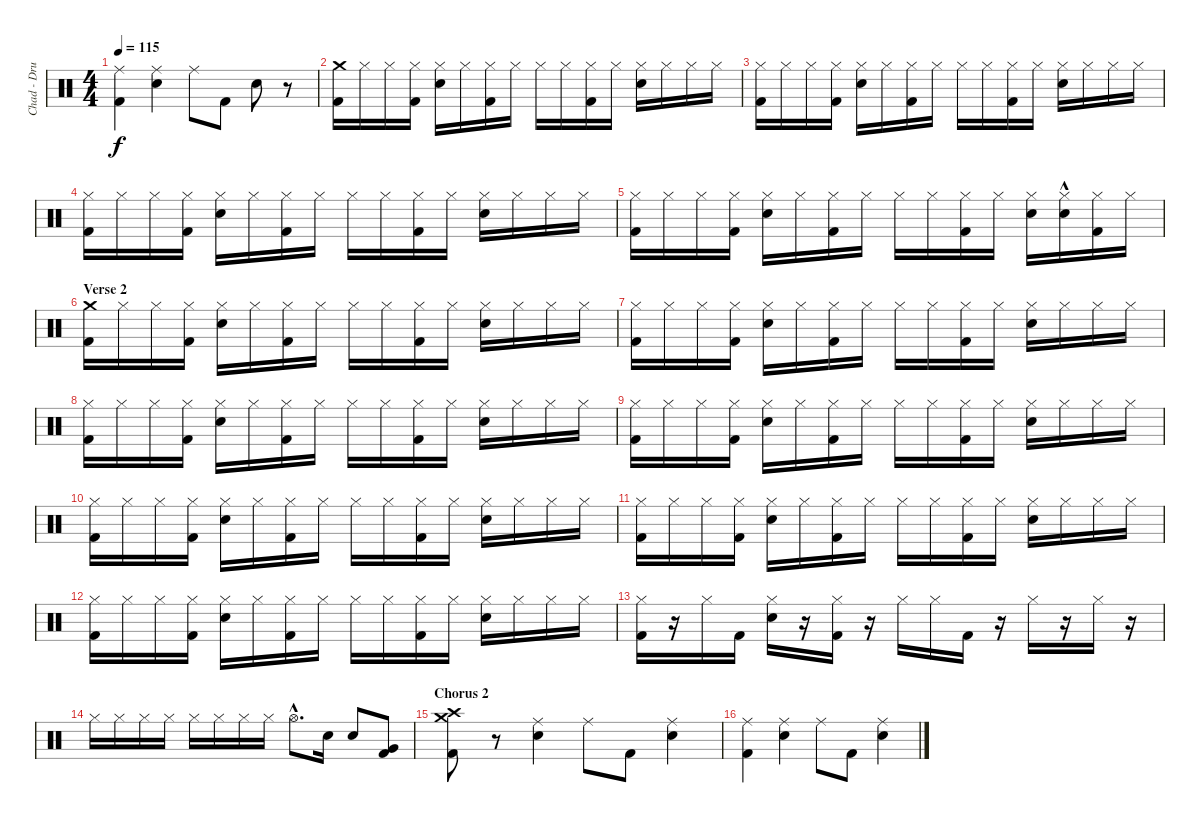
\track ("Chad - Drums" "Chad - Dru") {instrument percussion}
\staff {score}
\articulation defaults
\ts (4 4)
\tempo 115
\clef neutral
\ks c
("Kick (hit) 2" "Ride (middle)").4{dy f} ("Electric Snare (hit)" "Ride (middle)").4 "Ride (middle)".8 "Kick (hit) 2".8 "Electric Snare (hit)".8 r.8 |
("Kick (hit) 2" "Crash medium (hit)").16 "Hi-Hat (closed)".16 "Hi-Hat (closed)".16 ("Kick (hit) 2" "Hi-Hat (closed)").16 ("Hi-Hat (closed)" "Electric Snare (hit)").16 "Hi-Hat (closed)".16 ("Hi-Hat (closed)" "Kick (hit) 2").16 "Hi-Hat (closed)".16 "Hi-Hat (closed)".16 "Hi-Hat (closed)".16 ("Hi-Hat (closed)" "Kick (hit) 2").16 "Hi-Hat (closed)".16 ("Electric Snare (hit)" "Hi-Hat (closed)").16 "Hi-Hat (closed)".16 "Hi-Hat (closed)".16 "Hi-Hat (closed)".16 |
("Hi-Hat (closed)" "Kick (hit) 2").16 "Hi-Hat (closed)".16 "Hi-Hat (closed)".16 ("Kick (hit) 2" "Hi-Hat (closed)").16 ("Hi-Hat (closed)" "Electric Snare (hit)").16 "Hi-Hat (closed)".16 ("Hi-Hat (closed)" "Kick (hit) 2").16 "Hi-Hat (closed)".16 "Hi-Hat (closed)".16 "Hi-Hat (closed)".16 ("Kick (hit) 2" "Hi-Hat (closed)").16 "Hi-Hat (closed)".16 ("Electric Snare (hit)" "Hi-Hat (closed)").16 "Hi-Hat (closed)".16 "Hi-Hat (closed)".16 "Hi-Hat (closed)".16 |
("Hi-Hat (closed)" "Kick (hit) 2").16 "Hi-Hat (closed)".16 "Hi-Hat (closed)".16 ("Hi-Hat (closed)" "Kick (hit) 2").16 ("Hi-Hat (closed)" "Electric Snare (hit)").16 "Hi-Hat (closed)".16 ("Hi-Hat (closed)" "Kick (hit) 2").16 "Hi-Hat (closed)".16 "Hi-Hat (closed)".16 "Hi-Hat (closed)".16 ("Hi-Hat (closed)" "Kick (hit) 2").16 "Hi-Hat (closed)".16 ("Hi-Hat (closed)" "Electric Snare (hit)").16 "Hi-Hat (closed)".16 "Hi-Hat (closed)".16 "Hi-Hat (closed)".16 |
("Hi-Hat (closed)" "Kick (hit) 2").16 "Hi-Hat (closed)".16 "Hi-Hat (closed)".16 ("Hi-Hat (closed)" "Kick (hit) 2").16 ("Electric Snare (hit)" "Hi-Hat (closed)").16 "Hi-Hat (closed)".16 ("Hi-Hat (closed)" "Kick (hit) 2").16 "Hi-Hat (closed)".16 "Hi-Hat (closed)".16 "Hi-Hat (closed)".16 ("Hi-Hat (closed)" "Kick (hit) 2").16 "Hi-Hat (closed)".16 ("Electric Snare (hit)" "Hi-Hat (closed)").16 ("Electric Snare (hit)"{hac} "Hi-Hat (closed)").16 ("Hi-Hat (closed)" "Kick (hit) 2").16 "Hi-Hat (closed)".16 |
\section ("" "Verse 2")
("Kick (hit) 2" "Crash medium (hit)").16 "Hi-Hat (closed)".16 "Hi-Hat (closed)".16 ("Hi-Hat (closed)" "Kick (hit) 2").16 ("Hi-Hat (closed)" "Electric Snare (hit)").16 "Hi-Hat (closed)".16 ("Hi-Hat (closed)" "Kick (hit) 2").16 "Hi-Hat (closed)".16 "Hi-Hat (closed)".16 "Hi-Hat (closed)".16 ("Kick (hit) 2" "Hi-Hat (closed)").16 "Hi-Hat (closed)".16 ("Electric Snare (hit)" "Hi-Hat (closed)").16 "Hi-Hat (closed)".16 "Hi-Hat (closed)".16 "Hi-Hat (closed)".16 |
("Hi-Hat (closed)" "Kick (hit) 2").16 "Hi-Hat (closed)".16 "Hi-Hat (closed)".16 ("Hi-Hat (closed)" "Kick (hit) 2").16 ("Hi-Hat (closed)" "Electric Snare (hit)").16 "Hi-Hat (closed)".16 ("Hi-Hat (closed)" "Kick (hit) 2").16 "Hi-Hat (closed)".16 "Hi-Hat (closed)".16 "Hi-Hat (closed)".16 ("Hi-Hat (closed)" "Kick (hit) 2").16 "Hi-Hat (closed)".16 ("Hi-Hat (closed)" "Electric Snare (hit)").16 "Hi-Hat (closed)".16 "Hi-Hat (closed)".16 "Hi-Hat (closed)".16 |
("Hi-Hat (closed)" "Kick (hit) 2").16 "Hi-Hat (closed)".16 "Hi-Hat (closed)".16 ("Hi-Hat (closed)" "Kick (hit) 2").16 ("Electric Snare (hit)" "Hi-Hat (closed)").16 "Hi-Hat (closed)".16 ("Kick (hit) 2" "Hi-Hat (closed)").16 "Hi-Hat (closed)".16 "Hi-Hat (closed)".16 "Hi-Hat (closed)".16 ("Kick (hit) 2" "Hi-Hat (closed)").16 "Hi-Hat (closed)".16 ("Hi-Hat (closed)" "Electric Snare (hit)").16 "Hi-Hat (closed)".16 "Hi-Hat (closed)".16 "Hi-Hat (closed)".16 |
("Kick (hit) 2" "Hi-Hat (closed)").16 "Hi-Hat (closed)".16 "Hi-Hat (closed)".16 ("Hi-Hat (closed)" "Kick (hit) 2").16 ("Electric Snare (hit)" "Hi-Hat (closed)").16 "Hi-Hat (closed)".16 ("Hi-Hat (closed)" "Kick (hit) 2").16 "Hi-Hat (closed)".16 "Hi-Hat (closed)".16 "Hi-Hat (closed)".16 ("Hi-Hat (closed)" "Kick (hit) 2").16 "Hi-Hat (closed)".16 ("Hi-Hat (closed)" "Electric Snare (hit)").16 "Hi-Hat (closed)".16 "Hi-Hat (closed)".16 "Hi-Hat (closed)".16 |
("Hi-Hat (closed)" "Kick (hit) 2").16 "Hi-Hat (closed)".16 "Hi-Hat (closed)".16 ("Kick (hit) 2" "Hi-Hat (closed)").16 ("Hi-Hat (closed)" "Electric Snare (hit)").16 "Hi-Hat (closed)".16 ("Hi-Hat (closed)" "Kick (hit) 2").16 "Hi-Hat (closed)".16 "Hi-Hat (closed)".16 "Hi-Hat (closed)".16 ("Kick (hit) 2" "Hi-Hat (closed)").16 "Hi-Hat (closed)".16 ("Electric Snare (hit)" "Hi-Hat (closed)").16 "Hi-Hat (closed)".16 "Hi-Hat (closed)".16 "Hi-Hat (closed)".16 |
("Hi-Hat (closed)" "Kick (hit) 2").16 "Hi-Hat (closed)".16 "Hi-Hat (closed)".16 ("Hi-Hat (closed)" "Kick (hit) 2").16 ("Electric Snare (hit)" "Hi-Hat (closed)").16 "Hi-Hat (closed)".16 ("Kick (hit) 2" "Hi-Hat (closed)").16 "Hi-Hat (closed)".16 "Hi-Hat (closed)".16 "Hi-Hat (closed)".16 ("Hi-Hat (closed)" "Kick (hit) 2").16 "Hi-Hat (closed)".16 ("Hi-Hat (closed)" "Electric Snare (hit)").16 "Hi-Hat (closed)".16 "Hi-Hat (closed)".16 "Hi-Hat (closed)".16 |
("Hi-Hat (closed)" "Kick (hit) 2").16 "Hi-Hat (closed)".16 "Hi-Hat (closed)".16 ("Hi-Hat (closed)" "Kick (hit) 2").16 ("Electric Snare (hit)" "Hi-Hat (closed)").16 "Hi-Hat (closed)".16 ("Hi-Hat (closed)" "Kick (hit) 2").16 "Hi-Hat (closed)".16 "Hi-Hat (closed)".16 "Hi-Hat (closed)".16 ("Hi-Hat (closed)" "Kick (hit) 2").16 "Hi-Hat (closed)".16 ("Hi-Hat (closed)" "Electric Snare (hit)").16 "Hi-Hat (closed)".16 "Hi-Hat (closed)".16 "Hi-Hat (closed)".16 |
("Hi-Hat (closed)" "Kick (hit) 2").16 r.16 "Hi-Hat (closed)".16 "Kick (hit) 2".16 ("Electric Snare (hit)" "Hi-Hat (closed)").16 r.16 ("Kick (hit) 2" "Hi-Hat (closed)").16 r.16 "Hi-Hat (closed)".16 "Hi-Hat (closed)".16 "Kick (hit) 2".16 r.16 "Hi-Hat (closed)".16 r.16 "Hi-Hat (closed)".16 r.16 |
"Hi-Hat (closed)".16 "Hi-Hat (closed)".16 "Hi-Hat (closed)".16 "Hi-Hat (closed)".16 "Hi-Hat (closed)".16 "Hi-Hat (closed)".16 "Hi-Hat (closed)".16 "Hi-Hat (closed)".16 "Hi-Hat (open)"{hac}.8{d} "Electric Snare (hit)".16 "Electric Snare (hit)".8 ("Kick (hit) 2" "Very Low Tom (hit)").8 |
\section ("" "Chorus 2")
("Crash high (hit)" "Crash medium (hit)" "Kick (hit) 2").8 r.8 ("Ride (middle)" "Electric Snare (hit)").4 "Ride (middle)".8 "Kick (hit) 2".8 ("Ride (middle)" "Electric Snare (hit)").4 |
("Ride (middle)" "Kick (hit) 2").4 ("Ride (middle)" "Electric Snare (hit)").4 "Ride (middle)".8 "Kick (hit) 2".8 ("Ride (middle)" "Electric Snare (hit)").4
